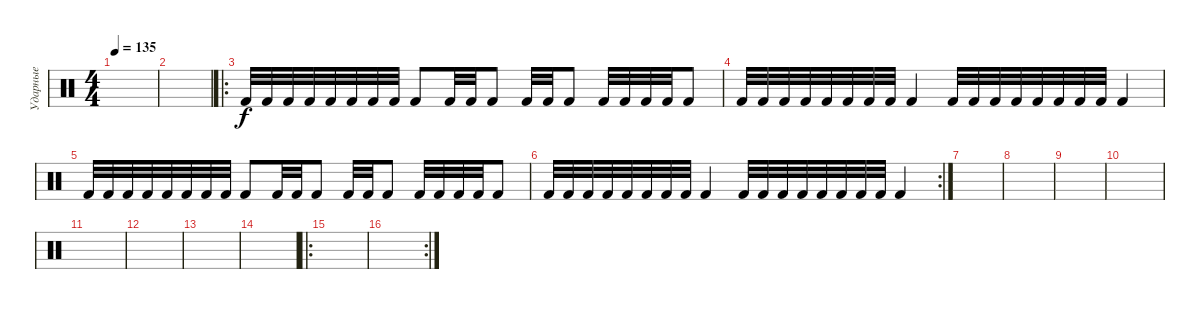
\track ("Ударные" "Ударные") {instrument percussion}
\staff {score}
\articulation defaults
\ts (4 4)
\tempo 135
\clef neutral
\ks c
|
|
\ro "Kick (hit) 2".32 "Kick (hit) 2".32 "Kick (hit) 2".32 "Kick (hit) 2".32 "Kick (hit) 2".32 "Kick (hit) 2".32 "Kick (hit) 2".32 "Kick (hit) 2".32 "Kick (hit) 2".8 "Kick (hit) 2".32 "Kick (hit) 2".32 "Kick (hit) 2".8 "Kick (hit) 2".32 "Kick (hit) 2".32 "Kick (hit) 2".8 "Kick (hit) 2".32 "Kick (hit) 2".32 "Kick (hit) 2".32 "Kick (hit) 2".32 "Kick (hit) 2".8
|
"Kick (hit) 2".32 "Kick (hit) 2".32 "Kick (hit) 2".32 "Kick (hit) 2".32 "Kick (hit) 2".32 "Kick (hit) 2".32 "Kick (hit) 2".32 "Kick (hit) 2".32 "Kick (hit) 2".4 "Kick (hit) 2".32 "Kick (hit) 2".32 "Kick (hit) 2".32 "Kick (hit) 2".32 "Kick (hit) 2".32 "Kick (hit) 2".32 "Kick (hit) 2".32 "Kick (hit) 2".32 "Kick (hit) 2".4 |
"Kick (hit) 2".32 "Kick (hit) 2".32 "Kick (hit) 2".32 "Kick (hit) 2".32 "Kick (hit) 2".32 "Kick (hit) 2".32 "Kick (hit) 2".32 "Kick (hit) 2".32 "Kick (hit) 2".8 "Kick (hit) 2".32 "Kick (hit) 2".32 "Kick (hit) 2".8 "Kick (hit) 2".32 "Kick (hit) 2".32 "Kick (hit) 2".8 "Kick (hit) 2".32 "Kick (hit) 2".32 "Kick (hit) 2".32 "Kick (hit) 2".32 "Kick (hit) 2".8 |
\rc 2 "Kick (hit) 2".32 "Kick (hit) 2".32 "Kick (hit) 2".32 "Kick (hit) 2".32 "Kick (hit) 2".32 "Kick (hit) 2".32 "Kick (hit) 2".32 "Kick (hit) 2".32 "Kick (hit) 2".4 "Kick (hit) 2".32 "Kick (hit) 2".32 "Kick (hit) 2".32 "Kick (hit) 2".32 "Kick (hit) 2".32 "Kick (hit) 2".32 "Kick (hit) 2".32 "Kick (hit) 2".32 "Kick (hit) 2".4
|
|
|
|
|
|
|
|
|
\ro
|
\rc 2
